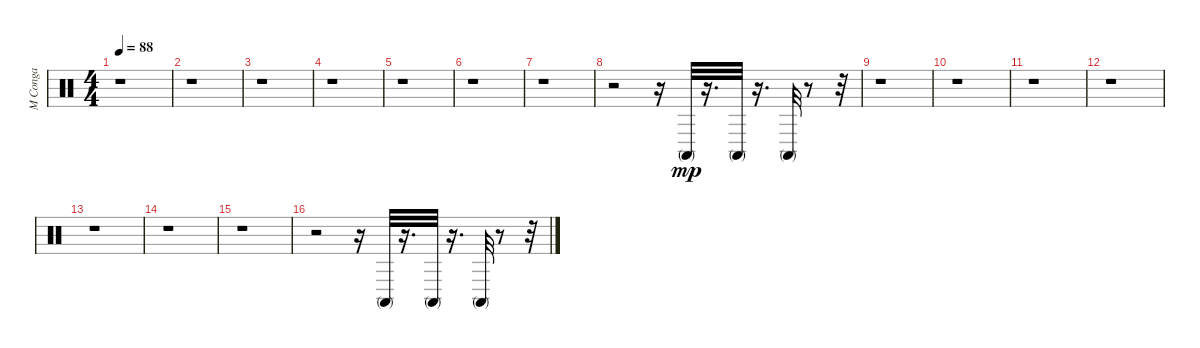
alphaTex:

\track ("M Conga" "M Conga") {instrument percussion}
\staff {score}
\articulation defaults
\ts (4 4)
\tempo 88
\clef neutral
\ks c
r.1{dy mp} |
r.1 |
r.1 |
r.1 |
r.1 |
r.1 |
r.1 |
r.2 r.16 "Conga high (mute)".32 r.16{d} "Conga high (mute)".32 r.16{d} "Conga high (mute)".32 r.8 r.32 |
r.1 |
r.1 |
r.1 |
r.1 |
r.1 |
r.1 |
r.1 |
r.2 r.16 "Conga high (mute)".32 r.16{d} "Conga high (mute)".32 r.16{d} "Conga high (mute)".32 r.8 r.32
